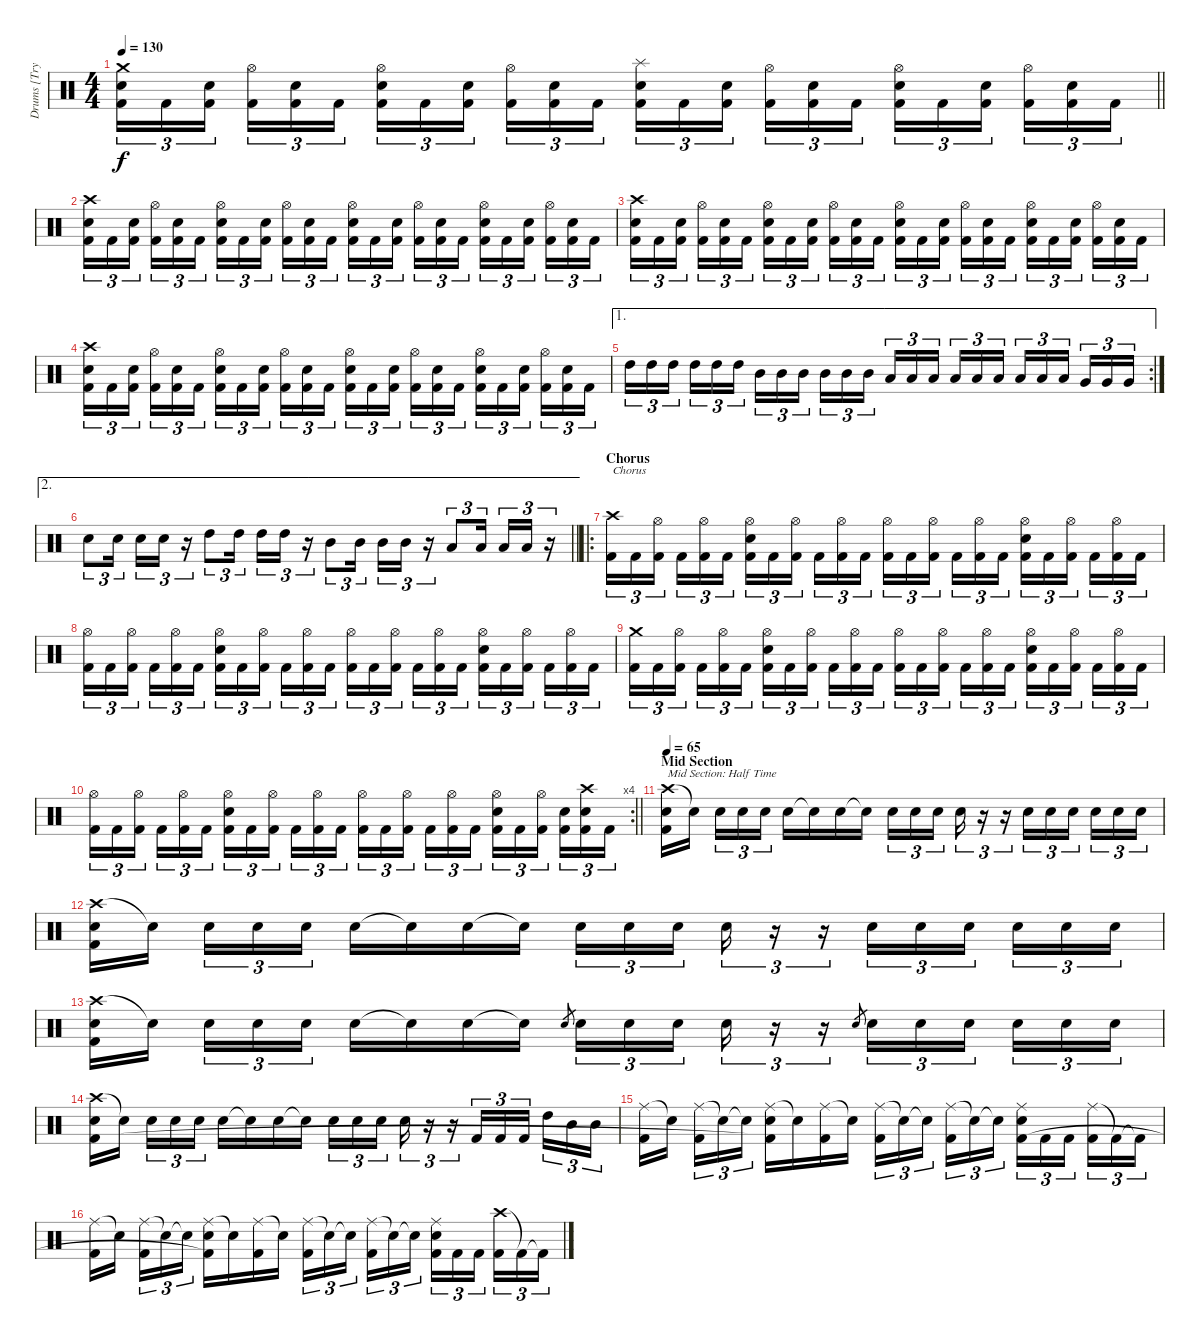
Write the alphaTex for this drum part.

\track ("Drums [Trym]" "Drums [Try") {instrument percussion}
\staff {score}
\articulation defaults
\ts (4 4)
\tempo 130
\clef neutral
\barLineRight lightlight
\ks c
("Crash medium (hit)" "Electric Snare (hit)" "Kick (hit) 2").16{tu (3 2) dy f} "Kick (hit) 2".16{tu (3 2)} ("Electric Snare (hit)" "Kick (hit) 2").16{tu (3 2) beam splitsecondary} ("Hi-Hat (open)" "Kick (hit) 2").16{tu (3 2)} ("Electric Snare (hit)" "Kick (hit) 2").16{tu (3 2)} "Kick (hit) 2".16{tu (3 2)} ("Hi-Hat (open)" "Electric Snare (hit)" "Kick (hit) 2").16{tu (3 2)} "Kick (hit) 2".16{tu (3 2)} ("Electric Snare (hit)" "Kick (hit) 2").16{tu (3 2) beam splitsecondary} ("Hi-Hat (open)" "Kick (hit) 2").16{tu (3 2)} ("Electric Snare (hit)" "Kick (hit) 2").16{tu (3 2)} "Kick (hit) 2".16{tu (3 2)} ("Splash (hit)" "Electric Snare (hit)" "Kick (hit) 2").16{tu (3 2)} "Kick (hit) 2".16{tu (3 2)} ("Electric Snare (hit)" "Kick (hit) 2").16{tu (3 2) beam splitsecondary} ("Hi-Hat (open)" "Kick (hit) 2").16{tu (3 2)} ("Electric Snare (hit)" "Kick (hit) 2").16{tu (3 2)} "Kick (hit) 2".16{tu (3 2)} ("Hi-Hat (open)" "Electric Snare (hit)" "Kick (hit) 2").16{tu (3 2)} "Kick (hit) 2".16{tu (3 2)} ("Electric Snare (hit)" "Kick (hit) 2").16{tu (3 2) beam splitsecondary} ("Hi-Hat (open)" "Kick (hit) 2").16{tu (3 2)} ("Electric Snare (hit)" "Kick (hit) 2").16{tu (3 2)} "Kick (hit) 2".16{tu (3 2)} |
("Crash high (hit)" "Electric Snare (hit)" "Kick (hit) 2").16{tu (3 2)} "Kick (hit) 2".16{tu (3 2)} ("Electric Snare (hit)" "Kick (hit) 2").16{tu (3 2) beam splitsecondary} ("Hi-Hat (open)" "Kick (hit) 2").16{tu (3 2)} ("Electric Snare (hit)" "Kick (hit) 2").16{tu (3 2)} "Kick (hit) 2".16{tu (3 2)} ("Hi-Hat (open)" "Electric Snare (hit)" "Kick (hit) 2").16{tu (3 2)} "Kick (hit) 2".16{tu (3 2)} ("Electric Snare (hit)" "Kick (hit) 2").16{tu (3 2) beam splitsecondary} ("Hi-Hat (open)" "Kick (hit) 2").16{tu (3 2)} ("Electric Snare (hit)" "Kick (hit) 2").16{tu (3 2)} "Kick (hit) 2".16{tu (3 2)} ("Hi-Hat (open)" "Electric Snare (hit)" "Kick (hit) 2").16{tu (3 2)} "Kick (hit) 2".16{tu (3 2)} ("Electric Snare (hit)" "Kick (hit) 2").16{tu (3 2) beam splitsecondary} ("Hi-Hat (open)" "Kick (hit) 2").16{tu (3 2)} ("Electric Snare (hit)" "Kick (hit) 2").16{tu (3 2)} "Kick (hit) 2".16{tu (3 2)} ("Hi-Hat (open)" "Electric Snare (hit)" "Kick (hit) 2").16{tu (3 2)} "Kick (hit) 2".16{tu (3 2)} ("Electric Snare (hit)" "Kick (hit) 2").16{tu (3 2) beam splitsecondary} ("Hi-Hat (open)" "Kick (hit) 2").16{tu (3 2)} ("Electric Snare (hit)" "Kick (hit) 2").16{tu (3 2)} "Kick (hit) 2".16{tu (3 2)} |
("Crash high (hit)" "Electric Snare (hit)" "Kick (hit) 2").16{tu (3 2)} "Kick (hit) 2".16{tu (3 2)} ("Electric Snare (hit)" "Kick (hit) 2").16{tu (3 2) beam splitsecondary} ("Hi-Hat (open)" "Kick (hit) 2").16{tu (3 2)} ("Electric Snare (hit)" "Kick (hit) 2").16{tu (3 2)} "Kick (hit) 2".16{tu (3 2)} ("Hi-Hat (open)" "Electric Snare (hit)" "Kick (hit) 2").16{tu (3 2)} "Kick (hit) 2".16{tu (3 2)} ("Electric Snare (hit)" "Kick (hit) 2").16{tu (3 2) beam splitsecondary} ("Hi-Hat (open)" "Kick (hit) 2").16{tu (3 2)} ("Electric Snare (hit)" "Kick (hit) 2").16{tu (3 2)} "Kick (hit) 2".16{tu (3 2)} ("Hi-Hat (open)" "Electric Snare (hit)" "Kick (hit) 2").16{tu (3 2)} "Kick (hit) 2".16{tu (3 2)} ("Electric Snare (hit)" "Kick (hit) 2").16{tu (3 2) beam splitsecondary} ("Hi-Hat (open)" "Kick (hit) 2").16{tu (3 2)} ("Electric Snare (hit)" "Kick (hit) 2").16{tu (3 2)} "Kick (hit) 2".16{tu (3 2)} ("Hi-Hat (open)" "Electric Snare (hit)" "Kick (hit) 2").16{tu (3 2)} "Kick (hit) 2".16{tu (3 2)} ("Electric Snare (hit)" "Kick (hit) 2").16{tu (3 2) beam splitsecondary} ("Hi-Hat (open)" "Kick (hit) 2").16{tu (3 2)} ("Electric Snare (hit)" "Kick (hit) 2").16{tu (3 2)} "Kick (hit) 2".16{tu (3 2)} |
("Crash high (hit)" "Electric Snare (hit)" "Kick (hit) 2").16{tu (3 2)} "Kick (hit) 2".16{tu (3 2)} ("Electric Snare (hit)" "Kick (hit) 2").16{tu (3 2) beam splitsecondary} ("Hi-Hat (open)" "Kick (hit) 2").16{tu (3 2)} ("Electric Snare (hit)" "Kick (hit) 2").16{tu (3 2)} "Kick (hit) 2".16{tu (3 2)} ("Hi-Hat (open)" "Electric Snare (hit)" "Kick (hit) 2").16{tu (3 2)} "Kick (hit) 2".16{tu (3 2)} ("Electric Snare (hit)" "Kick (hit) 2").16{tu (3 2) beam splitsecondary} ("Hi-Hat (open)" "Kick (hit) 2").16{tu (3 2)} ("Electric Snare (hit)" "Kick (hit) 2").16{tu (3 2)} "Kick (hit) 2".16{tu (3 2)} ("Hi-Hat (open)" "Electric Snare (hit)" "Kick (hit) 2").16{tu (3 2)} "Kick (hit) 2".16{tu (3 2)} ("Electric Snare (hit)" "Kick (hit) 2").16{tu (3 2) beam splitsecondary} ("Hi-Hat (open)" "Kick (hit) 2").16{tu (3 2)} ("Electric Snare (hit)" "Kick (hit) 2").16{tu (3 2)} "Kick (hit) 2".16{tu (3 2)} ("Hi-Hat (open)" "Electric Snare (hit)" "Kick (hit) 2").16{tu (3 2)} "Kick (hit) 2".16{tu (3 2)} ("Electric Snare (hit)" "Kick (hit) 2").16{tu (3 2) beam splitsecondary} ("Hi-Hat (open)" "Kick (hit) 2").16{tu (3 2)} ("Electric Snare (hit)" "Kick (hit) 2").16{tu (3 2)} "Kick (hit) 2".16{tu (3 2)} |
\ae 1
\rc 2 "High Tom (hit)".16{tu (3 2)} "High Tom (hit)".16{tu (3 2)} "High Tom (hit)".16{tu (3 2) beam splitsecondary} "High Tom (hit)".16{tu (3 2)} "High Tom (hit)".16{tu (3 2)} "High Tom (hit)".16{tu (3 2)} "Mid Tom (hit)".16{tu (3 2)} "Mid Tom (hit)".16{tu (3 2)} "Mid Tom (hit)".16{tu (3 2) beam splitsecondary} "Mid Tom (hit)".16{tu (3 2)} "Mid Tom (hit)".16{tu (3 2)} "Mid Tom (hit)".16{tu (3 2)} "Low Tom (hit)".16{tu (3 2)} "Low Tom (hit)".16{tu (3 2)} "Low Tom (hit)".16{tu (3 2) beam splitsecondary} "Low Tom (hit)".16{tu (3 2)} "Low Tom (hit)".16{tu (3 2)} "Low Tom (hit)".16{tu (3 2)} "Low Tom (hit)".16{tu (3 2)} "Low Tom (hit)".16{tu (3 2)} "Low Tom (hit)".16{tu (3 2) beam splitsecondary} "Very Low Tom (hit)".16{tu (3 2)} "Very Low Tom (hit)".16{tu (3 2)} "Very Low Tom (hit)".16{tu (3 2)}
|
\ae 2
\barLineRight lightlight "Electric Snare (hit)".8{tu (3 2)} "Electric Snare (hit)".16{tu (3 2) beam splitsecondary} "Electric Snare (hit)".16{tu (3 2)} "Electric Snare (hit)".16{tu (3 2)}
r.16{tu (3 2)} "High Tom (hit)".8{tu (3 2)} "High Tom (hit)".16{tu (3 2) beam splitsecondary} "High Tom (hit)".16{tu (3 2)} "High Tom (hit)".16{tu (3 2)} r.16{tu (3 2)} "Mid Tom (hit)".8{tu (3 2)} "Mid Tom (hit)".16{tu (3 2) beam splitsecondary} "Mid Tom (hit)".16{tu (3 2)} "Mid Tom (hit)".16{tu (3 2)} r.16{tu (3 2)} "Low Tom (hit)".8{tu (3 2)} "Low Tom (hit)".16{tu (3 2) beam splitsecondary} "Low Tom (hit)".16{tu (3 2)} "Low Tom (hit)".16{tu (3 2)} r.16{tu (3 2)} |
\ro
\section ("" "Chorus")
("Crash high (hit)" "Kick (hit) 2").16{tu (3 2) txt "Chorus"} "Kick (hit) 2".16{tu (3 2)} ("Hi-Hat (open)" "Kick (hit) 2").16{tu (3 2) beam splitsecondary} "Kick (hit) 2".16{tu (3 2)} ("Hi-Hat (open)" "Kick (hit) 2").16{tu (3 2)} "Kick (hit) 2".16{tu (3 2)} ("Hi-Hat (open)" "Electric Snare (hit)" "Kick (hit) 2").16{tu (3 2)} "Kick (hit) 2".16{tu (3 2)} ("Hi-Hat (open)" "Kick (hit) 2").16{tu (3 2) beam splitsecondary} "Kick (hit) 2".16{tu (3 2)} ("Hi-Hat (open)" "Kick (hit) 2").16{tu (3 2)} "Kick (hit) 2".16{tu (3 2)} ("Hi-Hat (open)" "Kick (hit) 2").16{tu (3 2)} "Kick (hit) 2".16{tu (3 2)} ("Hi-Hat (open)" "Kick (hit) 2").16{tu (3 2) beam splitsecondary} "Kick (hit) 2".16{tu (3 2)} ("Hi-Hat (open)" "Kick (hit) 2").16{tu (3 2)} "Kick (hit) 2".16{tu (3 2)} ("Hi-Hat (open)" "Electric Snare (hit)" "Kick (hit) 2").16{tu (3 2)} "Kick (hit) 2".16{tu (3 2)} ("Hi-Hat (open)" "Kick (hit) 2").16{tu (3 2) beam splitsecondary} "Kick (hit) 2".16{tu (3 2)} ("Hi-Hat (open)" "Kick (hit) 2").16{tu (3 2)} "Kick (hit) 2".16{tu (3 2)} |
("Hi-Hat (open)" "Kick (hit) 2").16{tu (3 2)} "Kick (hit) 2".16{tu (3 2)} ("Hi-Hat (open)" "Kick (hit) 2").16{tu (3 2) beam splitsecondary} "Kick (hit) 2".16{tu (3 2)} ("Hi-Hat (open)" "Kick (hit) 2").16{tu (3 2)} "Kick (hit) 2".16{tu (3 2)} ("Hi-Hat (open)" "Electric Snare (hit)" "Kick (hit) 2").16{tu (3 2)} "Kick (hit) 2".16{tu (3 2)} ("Hi-Hat (open)" "Kick (hit) 2").16{tu (3 2) beam splitsecondary} "Kick (hit) 2".16{tu (3 2)} ("Hi-Hat (open)" "Kick (hit) 2").16{tu (3 2)} "Kick (hit) 2".16{tu (3 2)} ("Hi-Hat (open)" "Kick (hit) 2").16{tu (3 2)} "Kick (hit) 2".16{tu (3 2)} ("Hi-Hat (open)" "Kick (hit) 2").16{tu (3 2) beam splitsecondary} "Kick (hit) 2".16{tu (3 2)} ("Hi-Hat (open)" "Kick (hit) 2").16{tu (3 2)} "Kick (hit) 2".16{tu (3 2)} ("Hi-Hat (open)" "Electric Snare (hit)" "Kick (hit) 2").16{tu (3 2)} "Kick (hit) 2".16{tu (3 2)} ("Hi-Hat (open)" "Kick (hit) 2").16{tu (3 2) beam splitsecondary} "Kick (hit) 2".16{tu (3 2)} ("Hi-Hat (open)" "Kick (hit) 2").16{tu (3 2)} "Kick (hit) 2".16{tu (3 2)} |
("Crash medium (hit)" "Kick (hit) 2").16{tu (3 2)} "Kick (hit) 2".16{tu (3 2)} ("Hi-Hat (open)" "Kick (hit) 2").16{tu (3 2) beam splitsecondary} "Kick (hit) 2".16{tu (3 2)} ("Hi-Hat (open)" "Kick (hit) 2").16{tu (3 2)} "Kick (hit) 2".16{tu (3 2)} ("Hi-Hat (open)" "Electric Snare (hit)" "Kick (hit) 2").16{tu (3 2)} "Kick (hit) 2".16{tu (3 2)} ("Hi-Hat (open)" "Kick (hit) 2").16{tu (3 2) beam splitsecondary} "Kick (hit) 2".16{tu (3 2)} ("Hi-Hat (open)" "Kick (hit) 2").16{tu (3 2)} "Kick (hit) 2".16{tu (3 2)} ("Hi-Hat (open)" "Kick (hit) 2").16{tu (3 2)} "Kick (hit) 2".16{tu (3 2)} ("Hi-Hat (open)" "Kick (hit) 2").16{tu (3 2) beam splitsecondary} "Kick (hit) 2".16{tu (3 2)} ("Hi-Hat (open)" "Kick (hit) 2").16{tu (3 2)} "Kick (hit) 2".16{tu (3 2)} ("Hi-Hat (open)" "Electric Snare (hit)" "Kick (hit) 2").16{tu (3 2)} "Kick (hit) 2".16{tu (3 2)} ("Hi-Hat (open)" "Kick (hit) 2").16{tu (3 2) beam splitsecondary} "Kick (hit) 2".16{tu (3 2)} ("Hi-Hat (open)" "Kick (hit) 2").16{tu (3 2)} "Kick (hit) 2".16{tu (3 2)} |
\rc 4
\barLineRight lightlight
("Hi-Hat (open)" "Kick (hit) 2").16{tu (3 2)} "Kick (hit) 2".16{tu (3 2)} ("Hi-Hat (open)" "Kick (hit) 2").16{tu (3 2) beam splitsecondary} "Kick (hit) 2".16{tu (3 2)} ("Hi-Hat (open)" "Kick (hit) 2").16{tu (3 2)} "Kick (hit) 2".16{tu (3 2)} ("Hi-Hat (open)" "Electric Snare (hit)" "Kick (hit) 2").16{tu (3 2)} "Kick (hit) 2".16{tu (3 2)} ("Hi-Hat (open)" "Kick (hit) 2").16{tu (3 2) beam splitsecondary} "Kick (hit) 2".16{tu (3 2)} ("Hi-Hat (open)" "Kick (hit) 2").16{tu (3 2)} "Kick (hit) 2".16{tu (3 2)} ("Hi-Hat (open)" "Kick (hit) 2").16{tu (3 2)} "Kick (hit) 2".16{tu (3 2)} ("Hi-Hat (open)" "Kick (hit) 2").16{tu (3 2) beam splitsecondary} "Kick (hit) 2".16{tu (3 2)} ("Hi-Hat (open)" "Kick (hit) 2").16{tu (3 2)} "Kick (hit) 2".16{tu (3 2)} ("Hi-Hat (open)" "Electric Snare (hit)" "Kick (hit) 2").16{tu (3 2)} "Kick (hit) 2".16{tu (3 2)} ("Hi-Hat (open)" "Kick (hit) 2").16{tu (3 2) beam splitsecondary} ("Electric Snare (hit)" "Kick (hit) 2").16{tu (3 2)} ("Crash high (hit)" "Electric Snare (hit)" "Kick (hit) 2").16{tu (3 2)} "Kick (hit) 2".16{tu (3 2)} |
\section ("" "Mid Section")
\tempo 65
("Crash high (hit)" "Electric Snare (hit)" "Kick (hit) 2").16{txt "Mid Section: Half Time"} "Snare (hit)"{t}.16{beam splitsecondary} "Electric Snare (hit)".16{tu (3 2)} "Electric Snare (hit)".16{tu (3 2)} "Electric Snare (hit)".16{tu (3 2)} "Electric Snare (hit)".16 "Snare (hit)"{t}.16 "Electric Snare (hit)".16 "Snare (hit)"{t}.16 "Electric Snare (hit)".16{tu (3 2)} "Electric Snare (hit)".16{tu (3 2)} "Electric Snare (hit)".16{tu (3 2) beam splitsecondary} "Electric Snare (hit)".16{tu (3 2)} r.16{tu (3 2)} r.16{tu (3 2)} "Electric Snare (hit)".16{tu (3 2)} "Electric Snare (hit)".16{tu (3 2)} "Electric Snare (hit)".16{tu (3 2) beam splitsecondary} "Electric Snare (hit)".16{tu (3 2)} "Electric Snare (hit)".16{tu (3 2)} "Electric Snare (hit)".16{tu (3 2)} |
("Crash high (hit)" "Electric Snare (hit)" "Kick (hit) 2").16 "Snare (hit)"{t}.16{beam splitsecondary} "Electric Snare (hit)".16{tu (3 2)} "Electric Snare (hit)".16{tu (3 2)} "Electric Snare (hit)".16{tu (3 2)} "Electric Snare (hit)".16 "Snare (hit)"{t}.16 "Electric Snare (hit)".16 "Snare (hit)"{t}.16 "Electric Snare (hit)".16{tu (3 2)} "Electric Snare (hit)".16{tu (3 2)} "Electric Snare (hit)".16{tu (3 2) beam splitsecondary} "Electric Snare (hit)".16{tu (3 2)} r.16{tu (3 2)} r.16{tu (3 2)} "Electric Snare (hit)".16{tu (3 2)} "Electric Snare (hit)".16{tu (3 2)} "Electric Snare (hit)".16{tu (3 2) beam splitsecondary} "Electric Snare (hit)".16{tu (3 2)} "Electric Snare (hit)".16{tu (3 2)} "Electric Snare (hit)".16{tu (3 2)} |
("Crash high (hit)" "Electric Snare (hit)" "Kick (hit) 2").16 "Snare (hit)"{t}.16{beam splitsecondary} "Electric Snare (hit)".16{tu (3 2)} "Electric Snare (hit)".16{tu (3 2)} "Electric Snare (hit)".16{tu (3 2)} "Electric Snare (hit)".16 "Snare (hit)"{t}.16 "Electric Snare (hit)".16 "Snare (hit)"{t}.16 "Electric Snare (hit)"{h}.8{gr} "Electric Snare (hit)".16{tu (3 2)} "Electric Snare (hit)".16{tu (3 2)} "Electric Snare (hit)".16{tu (3 2) beam splitsecondary} "Electric Snare (hit)".16{tu (3 2)} r.16{tu (3 2)} r.16{tu (3 2)} "Electric Snare (hit)"{h}.8{gr} "Electric Snare (hit)".16{tu (3 2)} "Electric Snare (hit)".16{tu (3 2)} "Electric Snare (hit)".16{tu (3 2) beam splitsecondary} "Electric Snare (hit)".16{tu (3 2)} "Electric Snare (hit)".16{tu (3 2)} "Electric Snare (hit)".16{tu (3 2)} |
("Crash high (hit)" "Electric Snare (hit)" "Kick (hit) 2").16 "Snare (hit)"{t}.16{beam splitsecondary} "Electric Snare (hit)".16{tu (3 2)} "Electric Snare (hit)".16{tu (3 2)} "Electric Snare (hit)".16{tu (3 2)} "Electric Snare (hit)".16 "Snare (hit)"{t}.16 "Electric Snare (hit)".16 "Snare (hit)"{t}.16 "Electric Snare (hit)".16{tu (3 2)} "Electric Snare (hit)".16{tu (3 2)} "Electric Snare (hit)".16{tu (3 2) beam splitsecondary} "Electric Snare (hit)".16{tu (3 2)} r.16{tu (3 2)} r.16{tu (3 2)} "Kick (hit) 2".16{tu (3 2)} "Kick (hit) 2".16{tu (3 2)} "Kick (hit) 2".16{tu (3 2) beam splitsecondary} "High Tom (hit)".16{tu (3 2)} "Mid Tom (hit)".16{tu (3 2)} "Mid Tom (hit)".16{tu (3 2)} |
("Ride (middle)" "Kick (hit) 2").16 "Snare (hit)"{t}.16{beam splitsecondary} ("Ride (middle)" "Kick (hit) 2").16{tu (3 2)} "Snare (hit)"{t}.16{tu (3 2)} "Snare (hit)"{t}.16{tu (3 2)} ("Ride (middle)" "Electric Snare (hit)" "Kick (hit) 2"{t}).16 "Snare (hit)"{t}.16 ("Ride (middle)" "Kick (hit) 2").16 "Snare (hit)"{t}.16 ("Ride (middle)" "Kick (hit) 2").16{tu (3 2)} "Snare (hit)"{t}.16{tu (3 2)} "Snare (hit)"{t}.16{tu (3 2) beam splitsecondary} ("Ride (middle)" "Kick (hit) 2").16{tu (3 2)} "Snare (hit)"{t}.16{tu (3 2)} "Snare (hit)"{t}.16{tu (3 2)} ("Ride (middle)" "Electric Snare (hit)" "Kick (hit) 2").16{tu (3 2)} "Kick (hit) 2".16{tu (3 2)} "Kick (hit) 2".16{tu (3 2) beam splitsecondary} ("Ride (middle)" "Kick (hit) 2").16{tu (3 2)} "Kick (hit) 2"{t}.16{tu (3 2)} "Kick (hit) 2"{t}.16{tu (3 2)} |
("Ride (middle)" "Kick (hit) 2").16 "Snare (hit)"{t}.16{beam splitsecondary} ("Ride (middle)" "Kick (hit) 2").16{tu (3 2)} "Snare (hit)"{t}.16{tu (3 2)} "Snare (hit)"{t}.16{tu (3 2)} ("Ride (middle)" "Electric Snare (hit)" "Kick (hit) 2"{t}).16 "Snare (hit)"{t}.16 ("Ride (middle)" "Kick (hit) 2").16 "Snare (hit)"{t}.16 ("Ride (middle)" "Kick (hit) 2").16{tu (3 2)} "Snare (hit)"{t}.16{tu (3 2)} "Snare (hit)"{t}.16{tu (3 2) beam splitsecondary} ("Ride (middle)" "Kick (hit) 2").16{tu (3 2)} "Snare (hit)"{t}.16{tu (3 2)} "Snare (hit)"{t}.16{tu (3 2)} ("Ride (middle)" "Electric Snare (hit)" "Kick (hit) 2").16{tu (3 2)} "Kick (hit) 2".16{tu (3 2)} "Kick (hit) 2".16{tu (3 2) beam splitsecondary} ("Crash high (hit)" "Kick (hit) 2").16{tu (3 2)} "Kick (hit) 2"{t}.16{tu (3 2)} "Kick (hit) 2"{t}.16{tu (3 2)}
